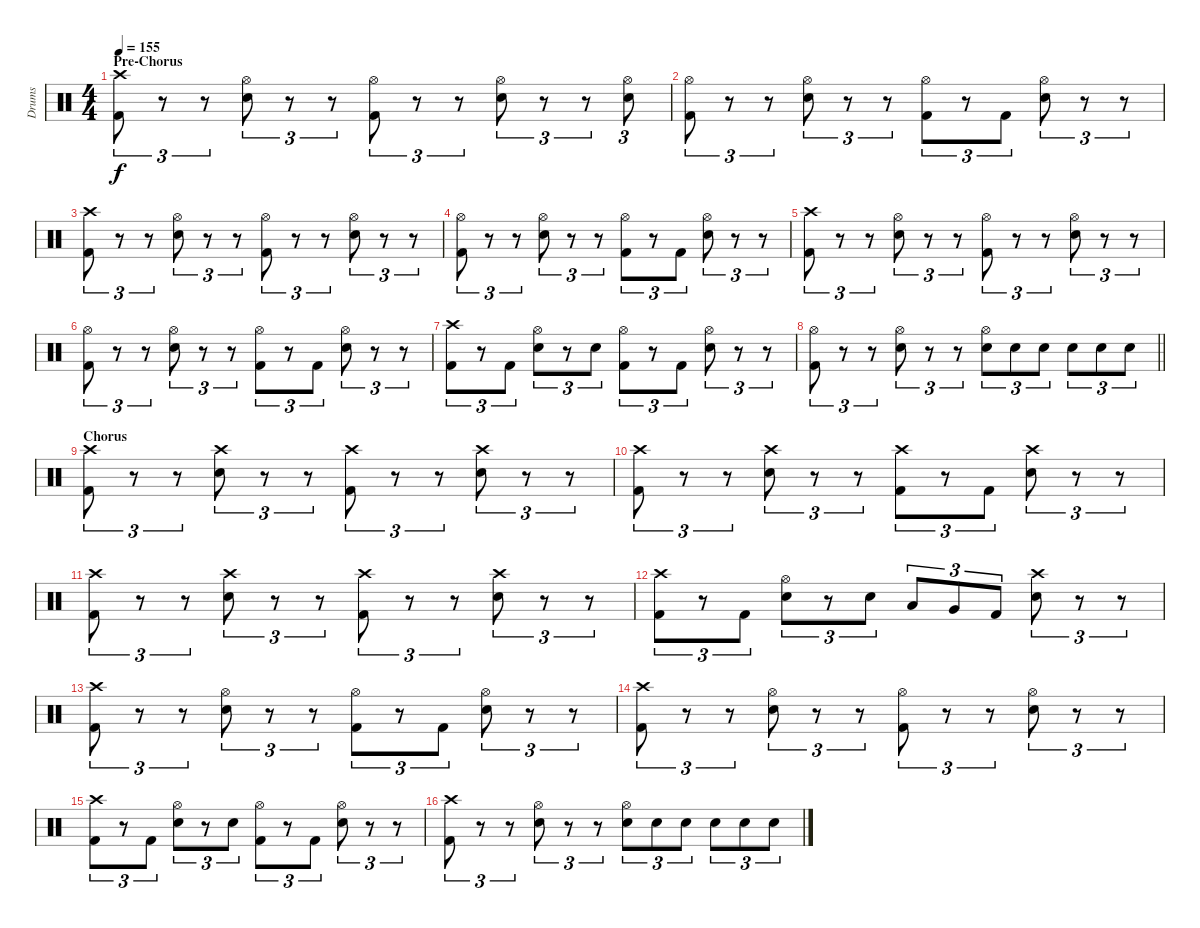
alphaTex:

\track ("Drums" "Drums") {instrument percussion}
\staff {score}
\articulation defaults
\ts (4 4)
\section ("" "Pre-Chorus")
\tempo 155
\clef neutral
\ks c
("Crash high (hit)" "Kick (hit) 2").8{tu (3 2) dy f} r.8{tu (3 2)} r.8{tu (3 2)} ("Hi-Hat (open)" "Snare (hit) 2").8{tu (3 2)} r.8{tu (3 2)} r.8{tu (3 2)} ("Hi-Hat (open)" "Kick (hit) 2").8{tu (3 2)} r.8{tu (3 2)} r.8{tu (3 2)} ("Hi-Hat (open)" "Snare (hit) 2").8{tu (3 2)} r.8{tu (3 2)} r.8{tu (3 2)} ("Hi-Hat (open)" "Snare (hit) 2").8{tu (3 2)} |
("Hi-Hat (open)" "Kick (hit) 2").8{tu (3 2)} r.8{tu (3 2)} r.8{tu (3 2)} ("Hi-Hat (open)" "Snare (hit) 2").8{tu (3 2)} r.8{tu (3 2)} r.8{tu (3 2)} ("Hi-Hat (open)" "Kick (hit) 2").8{tu (3 2)} r.8{tu (3 2)} "Kick (hit) 2".8{tu (3 2)} ("Hi-Hat (open)" "Snare (hit) 2").8{tu (3 2)} r.8{tu (3 2)} r.8{tu (3 2)} |
("Crash high (hit)" "Kick (hit) 2").8{tu (3 2)} r.8{tu (3 2)} r.8{tu (3 2)} ("Hi-Hat (open)" "Snare (hit) 2").8{tu (3 2)} r.8{tu (3 2)} r.8{tu (3 2)} ("Hi-Hat (open)" "Kick (hit) 2").8{tu (3 2)} r.8{tu (3 2)} r.8{tu (3 2)} ("Hi-Hat (open)" "Snare (hit) 2").8{tu (3 2)} r.8{tu (3 2)} r.8{tu (3 2)} |
("Hi-Hat (open)" "Kick (hit) 2").8{tu (3 2)} r.8{tu (3 2)} r.8{tu (3 2)} ("Hi-Hat (open)" "Snare (hit) 2").8{tu (3 2)} r.8{tu (3 2)} r.8{tu (3 2)} ("Hi-Hat (open)" "Kick (hit) 2").8{tu (3 2)} r.8{tu (3 2)} "Kick (hit) 2".8{tu (3 2)} ("Hi-Hat (open)" "Snare (hit) 2").8{tu (3 2)} r.8{tu (3 2)} r.8{tu (3 2)} |
("Crash high (hit)" "Kick (hit) 2").8{tu (3 2)} r.8{tu (3 2)} r.8{tu (3 2)} ("Hi-Hat (open)" "Snare (hit) 2").8{tu (3 2)} r.8{tu (3 2)} r.8{tu (3 2)} ("Hi-Hat (open)" "Kick (hit) 2").8{tu (3 2)} r.8{tu (3 2)} r.8{tu (3 2)} ("Hi-Hat (open)" "Snare (hit) 2").8{tu (3 2)} r.8{tu (3 2)} r.8{tu (3 2)} |
("Hi-Hat (open)" "Kick (hit) 2").8{tu (3 2)} r.8{tu (3 2)} r.8{tu (3 2)} ("Hi-Hat (open)" "Snare (hit) 2").8{tu (3 2)} r.8{tu (3 2)} r.8{tu (3 2)} ("Hi-Hat (open)" "Kick (hit) 2").8{tu (3 2)} r.8{tu (3 2)} "Kick (hit) 2".8{tu (3 2)} ("Hi-Hat (open)" "Snare (hit) 2").8{tu (3 2)} r.8{tu (3 2)} r.8{tu (3 2)} |
("Crash high (hit)" "Kick (hit) 2").8{tu (3 2)} r.8{tu (3 2)} "Kick (hit) 2".8{tu (3 2)} ("Hi-Hat (open)" "Snare (hit) 2").8{tu (3 2)} r.8{tu (3 2)} "Snare (hit) 2".8{tu (3 2)} ("Hi-Hat (open)" "Kick (hit) 2").8{tu (3 2)} r.8{tu (3 2)} "Kick (hit) 2".8{tu (3 2)} ("Hi-Hat (open)" "Snare (hit) 2").8{tu (3 2)} r.8{tu (3 2)} r.8{tu (3 2)} |
\barLineRight lightlight
("Hi-Hat (open)" "Kick (hit) 2").8{tu (3 2)} r.8{tu (3 2)} r.8{tu (3 2)} ("Hi-Hat (open)" "Snare (hit) 2").8{tu (3 2)} r.8{tu (3 2)} r.8{tu (3 2)} ("Hi-Hat (open)" "Snare (hit) 2").8{tu (3 2)} "Snare (hit) 2".8{tu (3 2)} "Snare (hit) 2".8{tu (3 2)} "Snare (hit) 2".8{tu (3 2)} "Snare (hit) 2".8{tu (3 2)} "Snare (hit) 2".8{tu (3 2)} |
\section ("" "Chorus")
("Crash high (hit)" "Kick (hit) 2").8{tu (3 2)} r.8{tu (3 2)} r.8{tu (3 2)} ("Crash high (hit)" "Snare (hit) 2").8{tu (3 2)} r.8{tu (3 2)} r.8{tu (3 2)} ("Crash high (hit)" "Kick (hit) 2").8{tu (3 2)} r.8{tu (3 2)} r.8{tu (3 2)} ("Crash high (hit)" "Snare (hit) 2").8{tu (3 2)} r.8{tu (3 2)} r.8{tu (3 2)} |
("Crash high (hit)" "Kick (hit) 2").8{tu (3 2)} r.8{tu (3 2)} r.8{tu (3 2)} ("Crash high (hit)" "Snare (hit) 2").8{tu (3 2)} r.8{tu (3 2)} r.8{tu (3 2)} ("Crash high (hit)" "Kick (hit) 2").8{tu (3 2)} r.8{tu (3 2)} "Kick (hit) 2".8{tu (3 2)} ("Crash high (hit)" "Snare (hit) 2").8{tu (3 2)} r.8{tu (3 2)} r.8{tu (3 2)} |
("Crash high (hit)" "Kick (hit) 2").8{tu (3 2)} r.8{tu (3 2)} r.8{tu (3 2)} ("Crash high (hit)" "Snare (hit) 2").8{tu (3 2)} r.8{tu (3 2)} r.8{tu (3 2)} ("Crash high (hit)" "Kick (hit) 2").8{tu (3 2)} r.8{tu (3 2)} r.8{tu (3 2)} ("Crash high (hit)" "Snare (hit) 2").8{tu (3 2)} r.8{tu (3 2)} r.8{tu (3 2)} |
("Crash high (hit)" "Kick (hit) 2").8{tu (3 2)} r.8{tu (3 2)} "Kick (hit) 2".8{tu (3 2)} ("Hi-Hat (open)" "Snare (hit) 2").8{tu (3 2)} r.8{tu (3 2)} "Snare (hit) 2".8{tu (3 2)} "Low Tom (hit)".8{tu (3 2)} "Very Low Tom (hit)".8{tu (3 2)} "Kick (hit) 2".8{tu (3 2)} ("Crash high (hit)" "Snare (hit) 2").8{tu (3 2)} r.8{tu (3 2)} r.8{tu (3 2)} |
("Crash high (hit)" "Kick (hit) 2").8{tu (3 2)} r.8{tu (3 2)} r.8{tu (3 2)} ("Hi-Hat (open)" "Snare (hit) 2").8{tu (3 2)} r.8{tu (3 2)} r.8{tu (3 2)} ("Hi-Hat (open)" "Kick (hit) 2").8{tu (3 2)} r.8{tu (3 2)} "Kick (hit) 2".8{tu (3 2)} ("Hi-Hat (open)" "Snare (hit) 2").8{tu (3 2)} r.8{tu (3 2)} r.8{tu (3 2)} |
("Crash high (hit)" "Kick (hit) 2").8{tu (3 2)} r.8{tu (3 2)} r.8{tu (3 2)} ("Hi-Hat (open)" "Snare (hit) 2").8{tu (3 2)} r.8{tu (3 2)} r.8{tu (3 2)} ("Hi-Hat (open)" "Kick (hit) 2").8{tu (3 2)} r.8{tu (3 2)} r.8{tu (3 2)} ("Hi-Hat (open)" "Snare (hit) 2").8{tu (3 2)} r.8{tu (3 2)} r.8{tu (3 2)} |
("Crash high (hit)" "Kick (hit) 2").8{tu (3 2)} r.8{tu (3 2)} "Kick (hit) 2".8{tu (3 2)} ("Hi-Hat (open)" "Snare (hit) 2").8{tu (3 2)} r.8{tu (3 2)} "Snare (hit) 2".8{tu (3 2)} ("Hi-Hat (open)" "Kick (hit) 2").8{tu (3 2)} r.8{tu (3 2)} "Kick (hit) 2".8{tu (3 2)} ("Hi-Hat (open)" "Snare (hit) 2").8{tu (3 2)} r.8{tu (3 2)} r.8{tu (3 2)} |
("Crash high (hit)" "Kick (hit) 2").8{tu (3 2)} r.8{tu (3 2)} r.8{tu (3 2)} ("Hi-Hat (open)" "Snare (hit) 2").8{tu (3 2)} r.8{tu (3 2)} r.8{tu (3 2)} ("Hi-Hat (open)" "Snare (hit) 2").8{tu (3 2)} "Snare (hit) 2".8{tu (3 2)} "Snare (hit) 2".8{tu (3 2)} "Snare (hit) 2".8{tu (3 2)} "Snare (hit) 2".8{tu (3 2)} "Snare (hit) 2".8{tu (3 2)}
